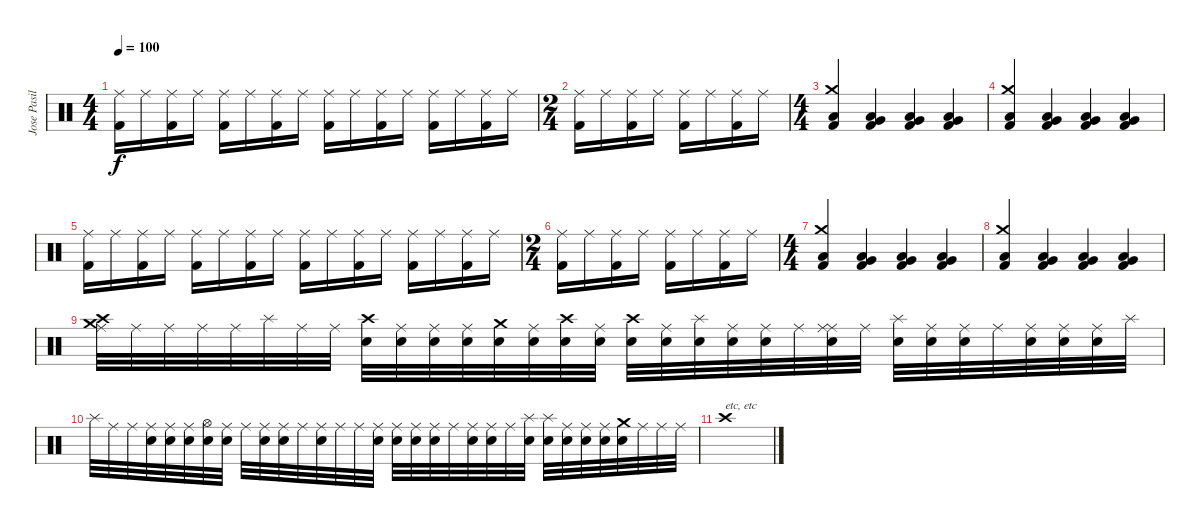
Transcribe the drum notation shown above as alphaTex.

\track ("Jose Pasillas" "Jose Pasil") {instrument percussion}
\staff {score}
\articulation defaults
\ts (4 4)
\tempo 100
\clef neutral
\ks c
("Ride (middle)" "Kick (hit) 2").16{dy f} "Ride (middle)".16 ("Ride (middle)" "Kick (hit) 2").16 "Ride (middle)".16 ("Ride (middle)" "Kick (hit) 2").16 "Ride (middle)".16 ("Ride (middle)" "Kick (hit) 2").16 "Ride (middle)".16 ("Ride (middle)" "Kick (hit) 2").16 "Ride (middle)".16 ("Ride (middle)" "Kick (hit) 2").16 "Ride (middle)".16 ("Ride (middle)" "Kick (hit) 2").16 "Ride (middle)".16 ("Ride (middle)" "Kick (hit) 2").16 "Ride (middle)".16 |
\ts (2 4)
("Ride (middle)" "Kick (hit) 2").16 "Ride (middle)".16 ("Ride (middle)" "Kick (hit) 2").16 "Ride (middle)".16 ("Ride (middle)" "Kick (hit) 2").16 "Ride (middle)".16 ("Ride (middle)" "Kick (hit) 2").16 "Ride (middle)".16 |
\ts (4 4)
("Kick (hit) 2" "Crash medium (hit)" "Low Floor Tom (hit)").4 ("Kick (hit) 2" "Very Low Tom (hit)" "Low Floor Tom (hit)").4 ("Kick (hit) 2" "Very Low Tom (hit)" "Low Floor Tom (hit)").4 ("Kick (hit) 2" "Very Low Tom (hit)" "Low Floor Tom (hit)").4 |
("Kick (hit) 2" "Crash medium (hit)" "Low Floor Tom (hit)").4 ("Kick (hit) 2" "Very Low Tom (hit)" "Low Floor Tom (hit)").4 ("Kick (hit) 2" "Very Low Tom (hit)" "Low Floor Tom (hit)").4 ("Kick (hit) 2" "Very Low Tom (hit)" "Low Floor Tom (hit)").4 |
("Ride (middle)" "Kick (hit) 2").16 "Ride (middle)".16 ("Ride (middle)" "Kick (hit) 2").16 "Ride (middle)".16 ("Ride (middle)" "Kick (hit) 2").16 "Ride (middle)".16 ("Ride (middle)" "Kick (hit) 2").16 "Ride (middle)".16 ("Ride (middle)" "Kick (hit) 2").16 "Ride (middle)".16 ("Ride (middle)" "Kick (hit) 2").16 "Ride (middle)".16 ("Ride (middle)" "Kick (hit) 2").16 "Ride (middle)".16 ("Ride (middle)" "Kick (hit) 2").16 "Ride (middle)".16 |
\ts (2 4)
("Ride (middle)" "Kick (hit) 2").16 "Ride (middle)".16 ("Ride (middle)" "Kick (hit) 2").16 "Ride (middle)".16 ("Ride (middle)" "Kick (hit) 2").16 "Ride (middle)".16 ("Ride (middle)" "Kick (hit) 2").16 "Ride (middle)".16 |
\ts (4 4)
("Kick (hit) 2" "Crash medium (hit)" "Low Floor Tom (hit)").4 ("Kick (hit) 2" "Very Low Tom (hit)" "Low Floor Tom (hit)").4 ("Kick (hit) 2" "Very Low Tom (hit)" "Low Floor Tom (hit)").4 ("Kick (hit) 2" "Very Low Tom (hit)" "Low Floor Tom (hit)").4 |
("Kick (hit) 2" "Crash medium (hit)" "Low Floor Tom (hit)").4 ("Kick (hit) 2" "Very Low Tom (hit)" "Low Floor Tom (hit)").4 ("Kick (hit) 2" "Very Low Tom (hit)" "Low Floor Tom (hit)").4 ("Kick (hit) 2" "Very Low Tom (hit)" "Low Floor Tom (hit)").4 |
("Crash medium (hit)" "Crash high (hit)" "Ride (middle)").32 "Ride (middle)".32 "Ride (middle)".32 "Ride (middle)".32 "Ride (middle)".32 "Splash (hit)".32 "Ride (middle)".32 "Ride (middle)".32 ("Snare (hit) 2" "Crash high (hit)").32 ("Snare (hit) 2" "Ride (middle)").32 ("Snare (hit) 2" "Ride (middle)").32 ("Snare (hit) 2" "Ride (middle)").32 ("Snare (hit) 2" "Crash medium (hit)").32 ("Snare (hit) 2" "Ride (middle)").32 ("Snare (hit) 2" "Crash high (hit)").32 ("Snare (hit) 2" "Ride (middle)").32 ("Snare (hit) 2" "Crash high (hit)").32 ("Snare (hit) 2" "Ride (middle)").32 ("Snare (hit) 2" "Splash (hit)").32 ("Snare (hit) 2" "Ride (middle)").32 ("Snare (hit) 2" "Ride (middle)").32 "Ride (middle)".32 ("Snare (hit) 2" "Ride (middle)" "Ride (middle)").32 "Ride (middle)".32 ("Snare (hit) 2" "Splash (hit)").32 ("Snare (hit) 2" "Ride (middle)").32 ("Snare (hit) 2" "Ride (middle)").32 "Ride (middle)".32 ("Snare (hit) 2" "Ride (middle)").32 ("Snare (hit) 2" "Ride (middle)").32 ("Snare (hit) 2" "Ride (middle)").32 "Splash (hit)".32 |
"Splash (hit)".32 "Ride (middle)".32 "Ride (middle)".32 ("Snare (hit) 2" "Ride (middle)").32 ("Snare (hit) 2" "Ride (middle)").32 ("Snare (hit) 2" "Ride (middle)").32 ("Snare (hit) 2" "Hi-Hat (open)").32 ("Snare (hit) 2" "Ride (middle)").32 "Ride (middle)".32 ("Snare (hit) 2" "Ride (middle)").32 ("Snare (hit) 2" "Ride (middle)").32 "Ride (middle)".32 ("Snare (hit) 2" "Ride (middle)").32 "Ride (middle)".32 "Ride (middle)".32 ("Snare (hit) 2" "Ride (middle)").32 ("Snare (hit) 2" "Ride (middle)").32 ("Snare (hit) 2" "Ride (middle)").32 ("Snare (hit) 2" "Ride (middle)").32 "Ride (middle)".32 ("Snare (hit) 2" "Ride (middle)").32 ("Snare (hit) 2" "Ride (middle)").32 "Ride (middle)".32 ("Snare (hit) 2" "Splash (hit)").32 ("Snare (hit) 2" "Splash (hit)").32 ("Snare (hit) 2" "Ride (middle)").32 ("Snare (hit) 2" "Ride (middle)").32 ("Snare (hit) 2" "Ride (middle)").32 ("Snare (hit) 2" "Crash medium (hit)").32 "Ride (middle)".32 "Ride (middle)".32 "Ride (middle)".32 |
"Crash high (hit)".1{txt "etc, etc"}
